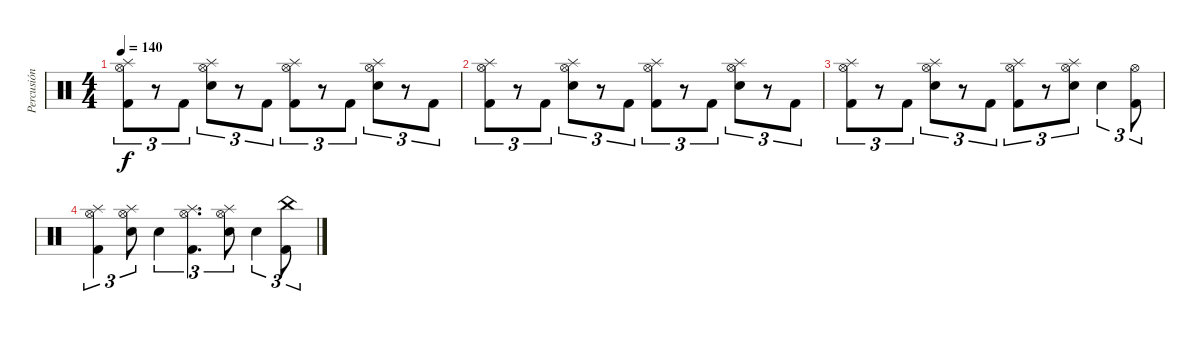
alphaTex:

\track ("Percusión" "Percusión") {instrument percussion}
\staff {score}
\articulation defaults
\ts (4 4)
\tempo 140
\clef neutral
\ks c
("Hi-Hat (open)" "Splash (hit)" "Kick (hit) 2").8{tu (3 2) dy f} r.8{tu (3 2)} "Kick (hit) 2".8{tu (3 2)} ("Hi-Hat (open)" "Splash (hit)" "Snare (hit) 2").8{tu (3 2)} r.8{tu (3 2)} "Kick (hit) 2".8{tu (3 2)} ("Hi-Hat (open)" "Splash (hit)" "Kick (hit) 2").8{tu (3 2)} r.8{tu (3 2)} "Kick (hit) 2".8{tu (3 2)} ("Hi-Hat (open)" "Splash (hit)" "Snare (hit) 2").8{tu (3 2)} r.8{tu (3 2)} "Kick (hit) 2".8{tu (3 2)} |
("Hi-Hat (open)" "Splash (hit)" "Kick (hit) 2").8{tu (3 2)} r.8{tu (3 2)} "Kick (hit) 2".8{tu (3 2)} ("Hi-Hat (open)" "Splash (hit)" "Snare (hit) 2").8{tu (3 2)} r.8{tu (3 2)} "Kick (hit) 2".8{tu (3 2)} ("Hi-Hat (open)" "Splash (hit)" "Kick (hit) 2").8{tu (3 2)} r.8{tu (3 2)} "Kick (hit) 2".8{tu (3 2)} ("Hi-Hat (open)" "Splash (hit)" "Snare (hit) 2").8{tu (3 2)} r.8{tu (3 2)} "Kick (hit) 2".8{tu (3 2)} |
("Hi-Hat (open)" "Splash (hit)" "Kick (hit) 2").8{tu (3 2)} r.8{tu (3 2)} "Kick (hit) 2".8{tu (3 2)} ("Hi-Hat (open)" "Splash (hit)" "Snare (hit) 2").8{tu (3 2)} r.8{tu (3 2)} "Kick (hit) 2".8{tu (3 2)} ("Hi-Hat (open)" "Splash (hit)" "Kick (hit) 2").8{tu (3 2)} r.8{tu (3 2)} ("Hi-Hat (open)" "Splash (hit)" "Snare (hit) 2").8{tu (3 2)} "Snare (hit) 2".4{tu (3 2)} ("Hi-Hat (open)" "Kick (hit) 2").8{tu (3 2)} |
("Hi-Hat (open)" "Splash (hit)" "Kick (hit) 2").4{tu (3 2)} ("Hi-Hat (open)" "Splash (hit)" "Snare (hit) 2").8{tu (3 2)} "Snare (hit) 2".4{tu (3 2)} ("Hi-Hat (open)" "Splash (hit)" "Kick (hit) 2").4{d tu (3 2)} ("Hi-Hat (open)" "Splash (hit)" "Snare (hit) 2").8{tu (3 2)} "Snare (hit) 2".4{tu (3 2)} ("China (hit)" "Kick (hit) 2").8{tu (3 2)}
